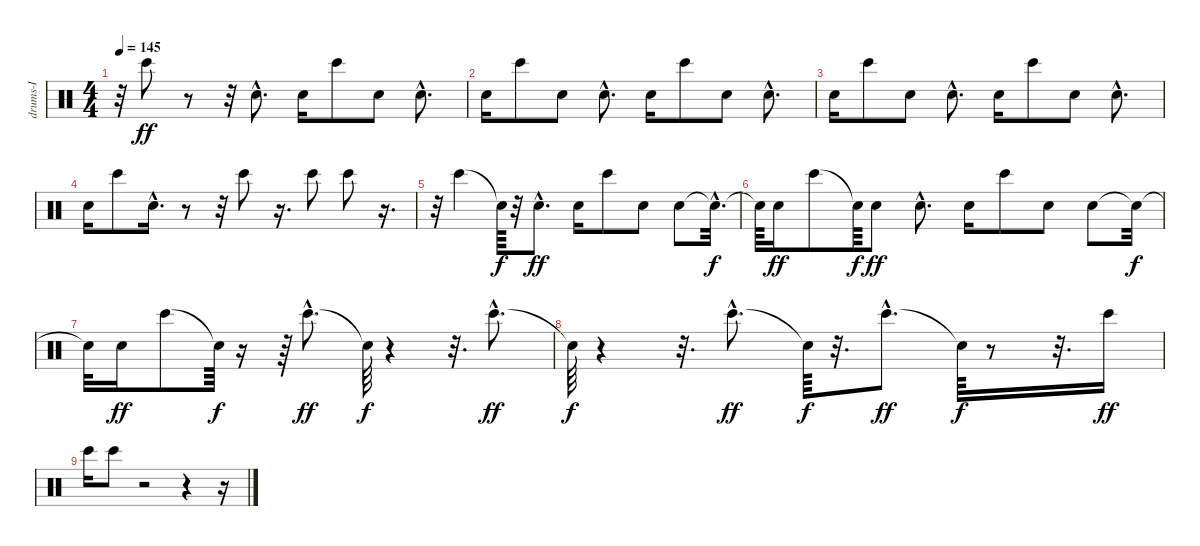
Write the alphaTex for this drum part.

\track ("drums-I" "drums-I") {instrument percussion}
\staff {score}
\articulation defaults
\ts (4 4)
\tempo 145
\clef neutral
\ks c
r.32{dy ff} "Bongo High (hit)".8 r.8 r.32 "Snare (hit)"{hac}.8{d} "Snare (hit)".16 "Bongo High (hit)".8 "Snare (hit)".8 "Snare (hit)"{hac}.8{d} |
"Snare (hit)".16 "Bongo High (hit)".8 "Snare (hit)".8 "Snare (hit)"{hac}.8{d} "Snare (hit)".16 "Bongo High (hit)".8 "Snare (hit)".8 "Snare (hit)"{hac}.8{d} |
"Snare (hit)".16 "Bongo High (hit)".8 "Snare (hit)".8 "Snare (hit)"{hac}.8{d} "Snare (hit)".16 "Bongo High (hit)".8 "Snare (hit)".8 "Snare (hit)"{hac}.8{d} |
"Snare (hit)".16 "Bongo High (hit)".8 "Snare (hit)"{hac}.16{d} r.8 r.32 "Bongo High (hit)".8 r.16{d} "Bongo High (hit)".8 "Bongo High (hit)".8 r.16{d} |
r.32 "Bongo High (hit)".4 "Snare (hit)"{t}.64{dy f} r.32 "Snare (hit)"{hac}.8{d dy ff} "Snare (hit)".16 "Bongo High (hit)".8 "Snare (hit)".8 "Snare (hit)".8 "Snare (hit)"{hac t}.32{d dy f} |
"Snare (hit)"{t}.64 "Snare (hit)".16{dy ff} "Bongo High (hit)".8 "Snare (hit)"{t}.64{dy f} "Snare (hit)".8{dy ff} "Snare (hit)"{hac}.8{d} "Snare (hit)".16 "Bongo High (hit)".8 "Snare (hit)".8 "Snare (hit)".8 "Snare (hit)"{t}.32{dy f} |
"Snare (hit)"{t}.32 "Snare (hit)".16{dy ff} "Bongo High (hit)".8 "Snare (hit)"{t}.64{dy f} r.16 r.64 "Bongo High (hit)"{hac}.8{d dy ff} "Snare (hit)"{t}.64{dy f} r.4 r.32{d} "Bongo High (hit)"{hac}.8{d dy ff} |
"Snare (hit)"{t}.64{dy f} r.4 r.32{d} "Bongo High (hit)"{hac}.8{d dy ff} "Snare (hit)"{t}.64{dy f} r.32{d} "Bongo High (hit)"{hac}.8{d dy ff} "Snare (hit)"{t}.64{dy f} r.8 r.32{d} "Bongo High (hit)".16{dy ff} |
"Bongo High (hit)".16 "Bongo High (hit)".8 r.2 r.4 r.16
